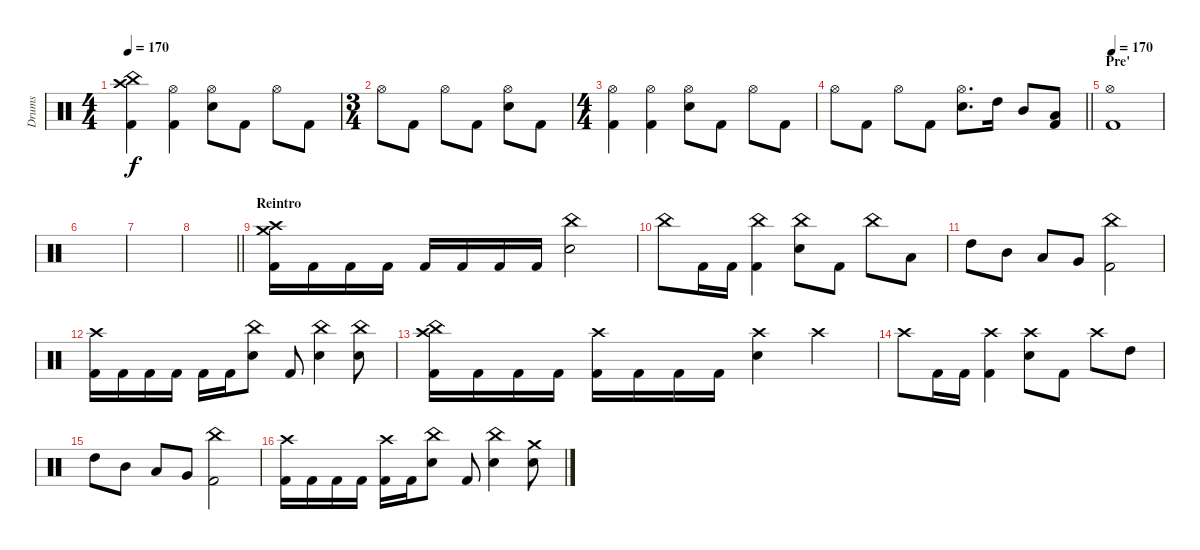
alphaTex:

\track ("Drums" "Drums") {instrument percussion}
\staff {score}
\articulation defaults
\ts (4 4)
\tempo 170
\clef neutral
\ks c
("Crash high (hit)" "China (hit)" "Kick (hit) 2").4{dy f} ("Hi-Hat (open)" "Kick (hit) 2").4 ("Hi-Hat (open)" "Electric Snare (hit)").8 "Kick (hit) 2".8 "Hi-Hat (open)".8 "Kick (hit) 2".8 |
\ts (3 4)
"Hi-Hat (open)".8 "Kick (hit) 2".8 "Hi-Hat (open)".8 "Kick (hit) 2".8 ("Hi-Hat (open)" "Electric Snare (hit)").8 "Kick (hit) 2".8 |
\ts (4 4)
("Hi-Hat (open)" "Kick (hit) 2").4 ("Hi-Hat (open)" "Kick (hit) 2").4 ("Hi-Hat (open)" "Electric Snare (hit)").8 "Kick (hit) 2".8 "Hi-Hat (open)".8 "Kick (hit) 2".8 |
\barLineRight lightlight "Hi-Hat (open)".8 "Kick (hit) 2".8 "Hi-Hat (open)".8 "Kick (hit) 2".8
("Hi-Hat (open)" "Electric Snare (hit)").8{d} "High Tom (hit)".16 "Mid Tom (hit)".8 ("Low Tom (hit)" "Kick (hit) 2").8 |
\section ("" "Pre'")
\tempo 170
("Hi-Hat (open)" "Kick (hit) 2").1 |
|
|
\barLineRight lightlight
|
\section ("" "Reintro")
("Crash high (hit)" "Crash medium (hit)" "Kick (hit) 2").16 "Kick (hit) 2".16 "Kick (hit) 2".16 "Kick (hit) 2".16 "Kick (hit) 2".16 "Kick (hit) 2".16 "Kick (hit) 2".16 "Kick (hit) 2".16 ("China (hit)" "Electric Snare (hit)").2 |
"China (hit)".8 "Kick (hit) 2".16 "Kick (hit) 2".16 ("China (hit)" "Kick (hit) 2").4 ("China (hit)" "Electric Snare (hit)").8 "Kick (hit) 2".8 "China (hit)".8 "Low Tom (hit)".8 |
"High Tom (hit)".8 "Mid Tom (hit)".8 "Low Tom (hit)".8 "Very Low Tom (hit)".8 ("China (hit)" "Kick (hit) 2").2 |
("Crash high (hit)" "Kick (hit) 2").16 "Kick (hit) 2".16 "Kick (hit) 2".16 "Kick (hit) 2".16 "Kick (hit) 2".16 "Kick (hit) 2".16 ("China (hit)" "Electric Snare (hit)").8 "Kick (hit) 2".8 ("China (hit)" "Electric Snare (hit)").4 ("China (hit)" "Electric Snare (hit)").8 |
("Crash high (hit)" "China (hit)" "Kick (hit) 2").16 "Kick (hit) 2".16 "Kick (hit) 2".16 "Kick (hit) 2".16 ("Crash high (hit)" "Kick (hit) 2").16 "Kick (hit) 2".16 "Kick (hit) 2".16 "Kick (hit) 2".16 ("Crash high (hit)" "Electric Snare (hit)").4 "Crash high (hit)".4 |
"Crash high (hit)".8 "Kick (hit) 2".16 "Kick (hit) 2".16 ("Crash high (hit)" "Kick (hit) 2").4 ("Crash high (hit)" "Electric Snare (hit)").8 "Kick (hit) 2".8 "Crash high (hit)".8 "High Tom (hit)".8 |
"High Tom (hit)".8 "Mid Tom (hit)".8 "Low Tom (hit)".8 "Very Low Tom (hit)".8 ("China (hit)" "Kick (hit) 2").2 |
("Crash high (hit)" "Kick (hit) 2").16 "Kick (hit) 2".16 "Kick (hit) 2".16 "Kick (hit) 2".16 ("Crash high (hit)" "Kick (hit) 2").16 "Kick (hit) 2".16 ("China (hit)" "Electric Snare (hit)").8 "Kick (hit) 2".8 ("China (hit)" "Electric Snare (hit)").4 ("Crash medium (hit)" "Electric Snare (hit)").8
